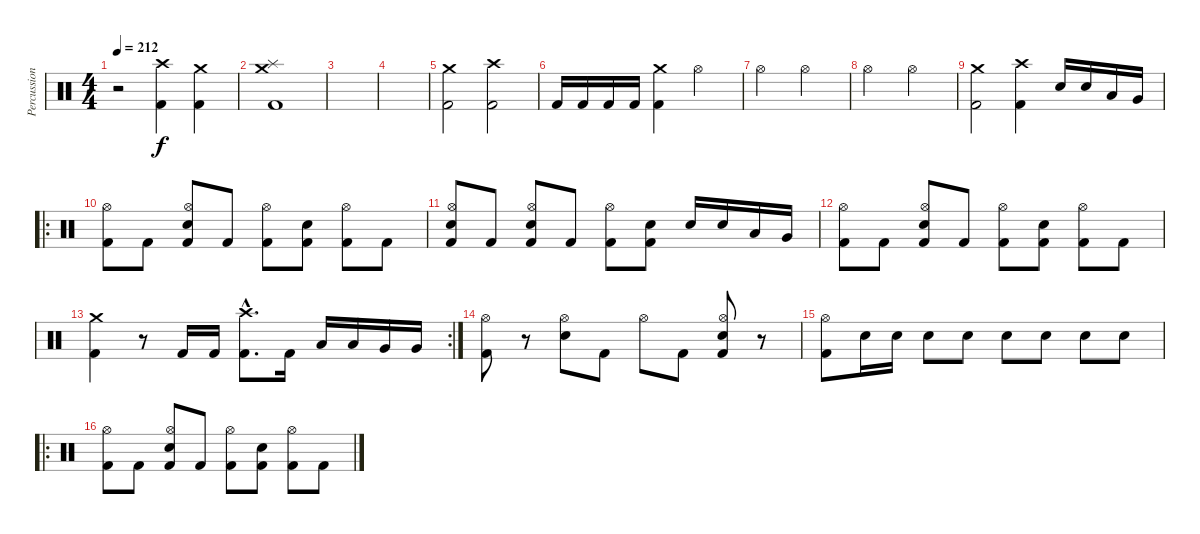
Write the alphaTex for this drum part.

\track ("Percussions" "Percussion") {instrument percussion}
\staff {score}
\articulation defaults
\ts (4 4)
\tempo 212
\clef neutral
\ks c
r.2{dy f} ("Crash high (hit)" "Kick (hit) 2").4 ("Crash medium (hit)" "Kick (hit) 2").4 |
("Crash medium (hit)" "Splash (hit)" "Kick (hit) 2").1 |
|
|
("Crash medium (hit)" "Kick (hit) 2").2 ("Crash high (hit)" "Kick (hit) 2").2 |
"Kick (hit) 2".16 "Kick (hit) 2".16 "Kick (hit) 2".16 "Kick (hit) 2".16 ("Crash medium (hit)" "Kick (hit) 2").4 "Hi-Hat (open)".2 |
"Hi-Hat (open)".2 "Hi-Hat (open)".2 |
"Hi-Hat (open)".2 "Hi-Hat (open)".2 |
("Crash medium (hit)" "Kick (hit) 2").2 ("Crash high (hit)" "Kick (hit) 2").4 "Snare (hit) 2".16 "Snare (hit) 2".16 "Low Tom (hit)".16 "Very Low Tom (hit)".16 |
\ro
("Hi-Hat (open)" "Kick (hit) 2").8 "Kick (hit) 2".8 ("Hi-Hat (open)" "Snare (hit) 2" "Kick (hit) 2").8 "Kick (hit) 2".8 ("Hi-Hat (open)" "Kick (hit) 2").8 ("Snare (hit) 2" "Kick (hit) 2").8 ("Hi-Hat (open)" "Kick (hit) 2").8 "Kick (hit) 2".8 |
("Hi-Hat (open)" "Snare (hit) 2" "Kick (hit) 2").8 "Kick (hit) 2".8 ("Hi-Hat (open)" "Snare (hit) 2" "Kick (hit) 2").8 "Kick (hit) 2".8 ("Hi-Hat (open)" "Kick (hit) 2").8 ("Snare (hit) 2" "Kick (hit) 2").8 "Snare (hit) 2".16 "Snare (hit) 2".16 "Low Tom (hit)".16 "Very Low Tom (hit)".16 |
("Hi-Hat (open)" "Kick (hit) 2").8 "Kick (hit) 2".8 ("Hi-Hat (open)" "Snare (hit) 2" "Kick (hit) 2").8 "Kick (hit) 2".8 ("Hi-Hat (open)" "Kick (hit) 2").8 ("Snare (hit) 2" "Kick (hit) 2").8 ("Hi-Hat (open)" "Kick (hit) 2").8 "Kick (hit) 2".8 |
\rc 2
("Crash medium (hit)" "Kick (hit) 2").4 r.8 "Kick (hit) 2".16 "Kick (hit) 2".16 ("Crash high (hit)"{hac} "Kick (hit) 2"{hac}).8{d} "Kick (hit) 2".16 "Low Tom (hit)".16 "Low Tom (hit)".16 "Very Low Tom (hit)".16 "Very Low Tom (hit)".16 |
("Hi-Hat (open)" "Kick (hit) 2").8 r.8 ("Hi-Hat (open)" "Snare (hit) 2").8 "Kick (hit) 2".8 "Hi-Hat (open)".8 "Kick (hit) 2".8 ("Hi-Hat (open)" "Snare (hit) 2" "Kick (hit) 2").8 r.8 |
("Hi-Hat (open)" "Kick (hit) 2").8 "Snare (hit) 2".16 "Snare (hit) 2".16 "Snare (hit) 2".8 "Snare (hit) 2".8 "Snare (hit) 2".8 "Snare (hit) 2".8 "Snare (hit) 2".8 "Snare (hit) 2".8 |
\ro
("Hi-Hat (open)" "Kick (hit) 2").8 "Kick (hit) 2".8 ("Hi-Hat (open)" "Snare (hit) 2" "Kick (hit) 2").8 "Kick (hit) 2".8 ("Hi-Hat (open)" "Kick (hit) 2").8 ("Snare (hit) 2" "Kick (hit) 2").8 ("Hi-Hat (open)" "Kick (hit) 2").8 "Kick (hit) 2".8
